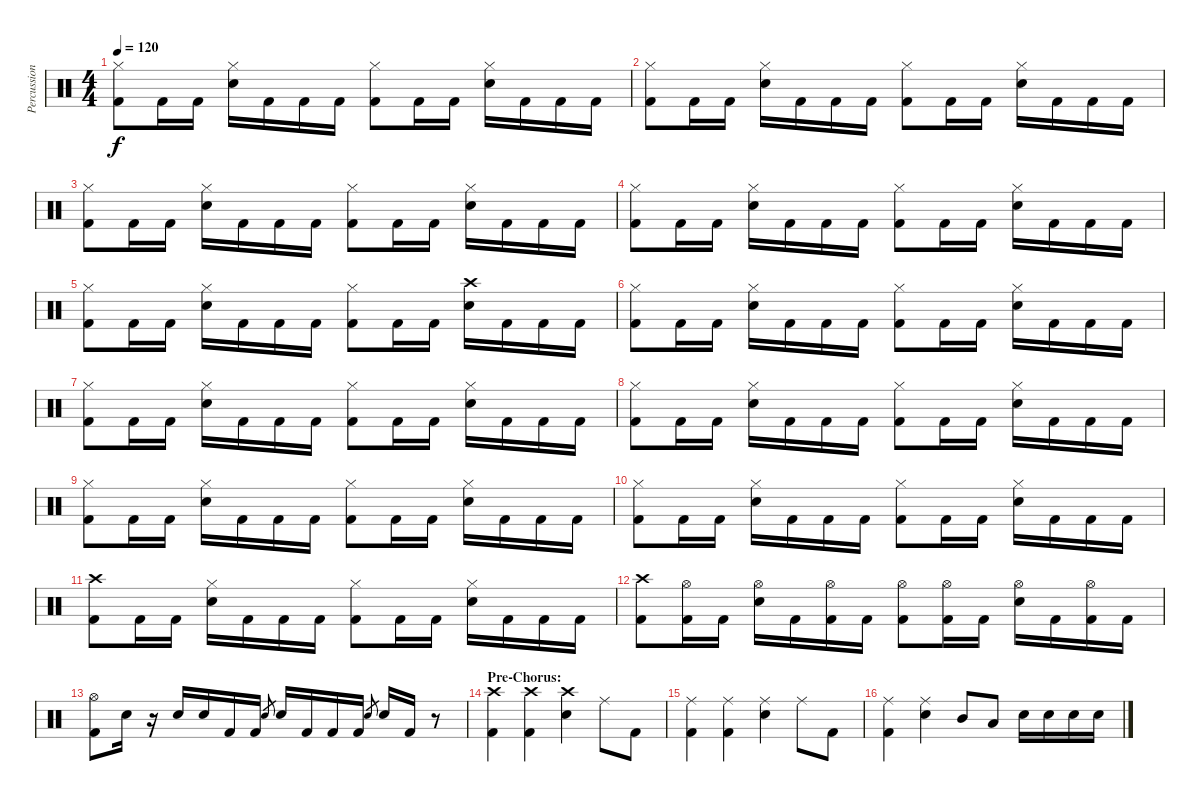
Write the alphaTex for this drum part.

\track ("Percussion" "Percussion") {instrument percussion}
\staff {score}
\articulation defaults
\ts (4 4)
\tempo 120
\clef neutral
\ks c
("Hi-Hat (closed)" "Kick (hit) 2").8{dy f} "Kick (hit) 2".16 "Kick (hit) 2".16 ("Hi-Hat (closed)" "Electric Snare (hit)").16 "Kick (hit) 2".16 "Kick (hit) 2".16 "Kick (hit) 2".16 ("Hi-Hat (closed)" "Kick (hit) 2").8 "Kick (hit) 2".16 "Kick (hit) 2".16 ("Hi-Hat (closed)" "Electric Snare (hit)").16 "Kick (hit) 2".16 "Kick (hit) 2".16 "Kick (hit) 2".16 |
("Hi-Hat (closed)" "Kick (hit) 2").8 "Kick (hit) 2".16 "Kick (hit) 2".16 ("Hi-Hat (closed)" "Electric Snare (hit)").16 "Kick (hit) 2".16 "Kick (hit) 2".16 "Kick (hit) 2".16 ("Hi-Hat (closed)" "Kick (hit) 2").8 "Kick (hit) 2".16 "Kick (hit) 2".16 ("Hi-Hat (closed)" "Electric Snare (hit)").16 "Kick (hit) 2".16 "Kick (hit) 2".16 "Kick (hit) 2".16 |
("Hi-Hat (closed)" "Kick (hit) 2").8 "Kick (hit) 2".16 "Kick (hit) 2".16 ("Hi-Hat (closed)" "Electric Snare (hit)").16 "Kick (hit) 2".16 "Kick (hit) 2".16 "Kick (hit) 2".16 ("Hi-Hat (closed)" "Kick (hit) 2").8 "Kick (hit) 2".16 "Kick (hit) 2".16 ("Hi-Hat (closed)" "Electric Snare (hit)").16 "Kick (hit) 2".16 "Kick (hit) 2".16 "Kick (hit) 2".16 |
("Hi-Hat (closed)" "Kick (hit) 2").8 "Kick (hit) 2".16 "Kick (hit) 2".16 ("Hi-Hat (closed)" "Electric Snare (hit)").16 "Kick (hit) 2".16 "Kick (hit) 2".16 "Kick (hit) 2".16 ("Hi-Hat (closed)" "Kick (hit) 2").8 "Kick (hit) 2".16 "Kick (hit) 2".16 ("Hi-Hat (closed)" "Electric Snare (hit)").16 "Kick (hit) 2".16 "Kick (hit) 2".16 "Kick (hit) 2".16 |
("Hi-Hat (closed)" "Kick (hit) 2").8 "Kick (hit) 2".16 "Kick (hit) 2".16 ("Hi-Hat (closed)" "Electric Snare (hit)").16 "Kick (hit) 2".16 "Kick (hit) 2".16 "Kick (hit) 2".16 ("Hi-Hat (closed)" "Kick (hit) 2").8 "Kick (hit) 2".16 "Kick (hit) 2".16 ("Crash high (hit)" "Electric Snare (hit)").16 "Kick (hit) 2".16 "Kick (hit) 2".16 "Kick (hit) 2".16 |
("Hi-Hat (closed)" "Kick (hit) 2").8 "Kick (hit) 2".16 "Kick (hit) 2".16 ("Hi-Hat (closed)" "Electric Snare (hit)").16 "Kick (hit) 2".16 "Kick (hit) 2".16 "Kick (hit) 2".16 ("Hi-Hat (closed)" "Kick (hit) 2").8 "Kick (hit) 2".16 "Kick (hit) 2".16 ("Hi-Hat (closed)" "Electric Snare (hit)").16 "Kick (hit) 2".16 "Kick (hit) 2".16 "Kick (hit) 2".16 |
("Hi-Hat (closed)" "Kick (hit) 2").8 "Kick (hit) 2".16 "Kick (hit) 2".16 ("Hi-Hat (closed)" "Electric Snare (hit)").16 "Kick (hit) 2".16 "Kick (hit) 2".16 "Kick (hit) 2".16 ("Hi-Hat (closed)" "Kick (hit) 2").8 "Kick (hit) 2".16 "Kick (hit) 2".16 ("Hi-Hat (closed)" "Electric Snare (hit)").16 "Kick (hit) 2".16 "Kick (hit) 2".16 "Kick (hit) 2".16 |
("Hi-Hat (closed)" "Kick (hit) 2").8 "Kick (hit) 2".16 "Kick (hit) 2".16 ("Hi-Hat (closed)" "Electric Snare (hit)").16 "Kick (hit) 2".16 "Kick (hit) 2".16 "Kick (hit) 2".16 ("Hi-Hat (closed)" "Kick (hit) 2").8 "Kick (hit) 2".16 "Kick (hit) 2".16 ("Hi-Hat (closed)" "Electric Snare (hit)").16 "Kick (hit) 2".16 "Kick (hit) 2".16 "Kick (hit) 2".16 |
("Hi-Hat (closed)" "Kick (hit) 2").8 "Kick (hit) 2".16 "Kick (hit) 2".16 ("Hi-Hat (closed)" "Electric Snare (hit)").16 "Kick (hit) 2".16 "Kick (hit) 2".16 "Kick (hit) 2".16 ("Hi-Hat (closed)" "Kick (hit) 2").8 "Kick (hit) 2".16 "Kick (hit) 2".16 ("Hi-Hat (closed)" "Electric Snare (hit)").16 "Kick (hit) 2".16 "Kick (hit) 2".16 "Kick (hit) 2".16 |
("Hi-Hat (closed)" "Kick (hit) 2").8 "Kick (hit) 2".16 "Kick (hit) 2".16 ("Hi-Hat (closed)" "Electric Snare (hit)").16 "Kick (hit) 2".16 "Kick (hit) 2".16 "Kick (hit) 2".16 ("Hi-Hat (closed)" "Kick (hit) 2").8 "Kick (hit) 2".16 "Kick (hit) 2".16 ("Hi-Hat (closed)" "Electric Snare (hit)").16 "Kick (hit) 2".16 "Kick (hit) 2".16 "Kick (hit) 2".16 |
("Crash high (hit)" "Kick (hit) 2").8 "Kick (hit) 2".16 "Kick (hit) 2".16 ("Hi-Hat (closed)" "Electric Snare (hit)").16 "Kick (hit) 2".16 "Kick (hit) 2".16 "Kick (hit) 2".16 ("Hi-Hat (closed)" "Kick (hit) 2").8 "Kick (hit) 2".16 "Kick (hit) 2".16 ("Hi-Hat (closed)" "Electric Snare (hit)").16 "Kick (hit) 2".16 "Kick (hit) 2".16 "Kick (hit) 2".16 |
("Crash high (hit)" "Kick (hit) 2").8 ("Hi-Hat (open)" "Kick (hit) 2").16 "Kick (hit) 2".16 ("Hi-Hat (open)" "Electric Snare (hit)").16 "Kick (hit) 2".16 ("Hi-Hat (open)" "Kick (hit) 2").16 "Kick (hit) 2".16 ("Hi-Hat (open)" "Kick (hit) 2").8 ("Hi-Hat (open)" "Kick (hit) 2").16 "Kick (hit) 2".16 ("Hi-Hat (open)" "Electric Snare (hit)").16 "Kick (hit) 2".16 ("Hi-Hat (open)" "Kick (hit) 2").16 "Kick (hit) 2".16 |
("Hi-Hat (open)" "Kick (hit) 2").8 "Electric Snare (hit)".16 r.16 "Electric Snare (hit)".16 "Electric Snare (hit)".16 "Kick (hit) 2".16 "Kick (hit) 2".16 "Electric Snare (hit)".8{gr} "Electric Snare (hit)".16 "Kick (hit) 2".16 "Kick (hit) 2".16 "Kick (hit) 2".16 "Electric Snare (hit)".8{gr} "Electric Snare (hit)".16 "Kick (hit) 2".16 r.8 |
\section ("" "Pre-Chorus:")
("Crash high (hit)" "Kick (hit) 2").4 ("Crash high (hit)" "Kick (hit) 2").4 ("Crash high (hit)" "Electric Snare (hit)").4 "Ride (middle)".8 "Kick (hit) 2".8 |
("Ride (middle)" "Kick (hit) 2").4 ("Ride (middle)" "Kick (hit) 2").4 ("Ride (middle)" "Electric Snare (hit)").4 "Ride (middle)".8 "Kick (hit) 2".8 |
("Ride (middle)" "Kick (hit) 2").4 ("Ride (middle)" "Electric Snare (hit)").4 "Mid Tom (hit)".8 "Low Tom (hit)".8 "Electric Snare (hit)".16 "Electric Snare (hit)".16 "Electric Snare (hit)".16 "Electric Snare (hit)".16
